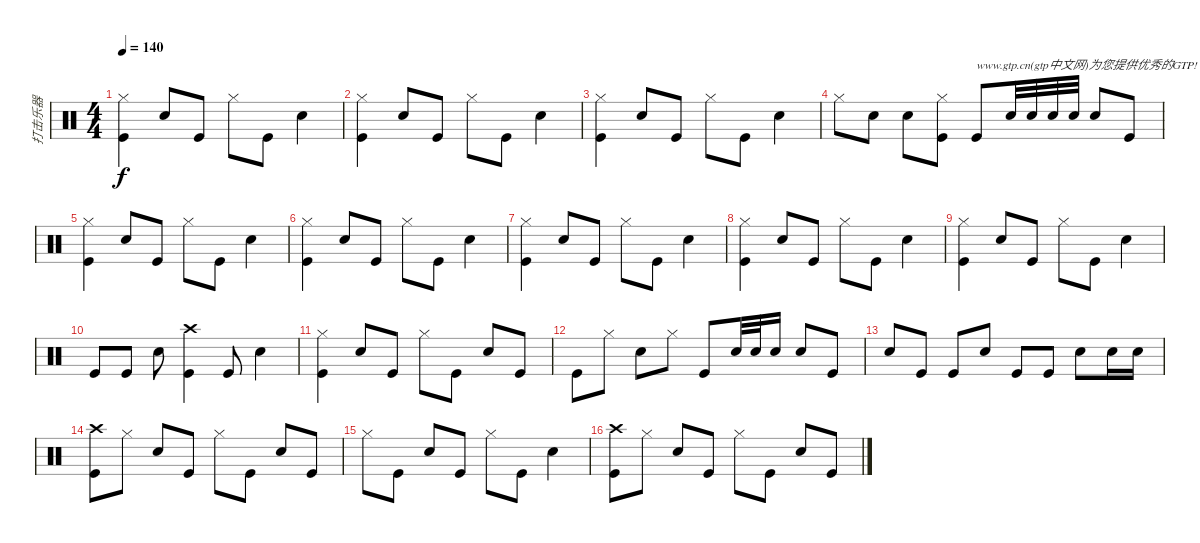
\track ("打击乐器" "打击乐器") {instrument percussion}
\staff {score}
\articulation defaults
\ts (4 4)
\tempo 140
\clef neutral
\ks c
("Hi-Hat (closed)" "Kick (hit)").4{dy f} "Snare (hit) 2".8 "Kick (hit)".8 "Hi-Hat (closed)".8 "Kick (hit)".8 "Snare (hit) 2".4 |
("Hi-Hat (closed)" "Kick (hit)").4 "Snare (hit) 2".8 "Kick (hit)".8 "Hi-Hat (closed)".8 "Kick (hit)".8 "Snare (hit) 2".4 |
("Hi-Hat (closed)" "Kick (hit)").4 "Snare (hit) 2".8 "Kick (hit)".8 "Hi-Hat (closed)".8 "Kick (hit)".8 "Snare (hit) 2".4 |
"Hi-Hat (closed)".8 "Snare (hit) 2".8 "Snare (hit) 2".8 ("Hi-Hat (closed)" "Kick (hit)").8 "Kick (hit)".8{txt "www.gtp.cn(gtp中文网)为您提供优秀的GTP!"} "Snare (hit) 2".32 "Snare (hit) 2".32 "Snare (hit) 2".32 "Snare (hit) 2".32 "Snare (hit) 2".8 "Kick (hit)".8 |
("Hi-Hat (closed)" "Kick (hit)").4 "Snare (hit) 2".8 "Kick (hit)".8 "Hi-Hat (closed)".8 "Kick (hit)".8 "Snare (hit) 2".4 |
("Hi-Hat (closed)" "Kick (hit)").4 "Snare (hit) 2".8 "Kick (hit)".8 "Hi-Hat (closed)".8 "Kick (hit)".8 "Snare (hit) 2".4 |
("Hi-Hat (closed)" "Kick (hit)").4 "Snare (hit) 2".8 "Kick (hit)".8 "Hi-Hat (closed)".8 "Kick (hit)".8 "Snare (hit) 2".4 |
("Hi-Hat (closed)" "Kick (hit)").4 "Snare (hit) 2".8 "Kick (hit)".8 "Hi-Hat (closed)".8 "Kick (hit)".8 "Snare (hit) 2".4 |
("Hi-Hat (closed)" "Kick (hit)").4 "Snare (hit) 2".8 "Kick (hit)".8 "Hi-Hat (closed)".8 "Kick (hit)".8 "Snare (hit) 2".4 |
"Kick (hit)".8 "Kick (hit)".8 "Snare (hit) 2".8 ("Crash high (hit)" "Kick (hit)").4 "Kick (hit)".8 "Snare (hit) 2".4 |
("Hi-Hat (closed)" "Kick (hit)").4 "Snare (hit) 2".8 "Kick (hit)".8 "Hi-Hat (closed)".8 "Kick (hit)".8 "Snare (hit) 2".8 "Kick (hit)".8 |
"Kick (hit)".8 "Hi-Hat (closed)".8 "Snare (hit) 2".8 "Hi-Hat (closed)".8 "Kick (hit)".8 "Snare (hit) 2".32 "Snare (hit) 2".32 "Snare (hit) 2".16 "Snare (hit) 2".8 "Kick (hit)".8 |
"Snare (hit) 2".8 "Kick (hit)".8 "Kick (hit)".8 "Snare (hit) 2".8 "Kick (hit)".8 "Kick (hit)".8 "Snare (hit) 2".8 "Snare (hit) 2".16 "Snare (hit) 2".16 |
("Crash high (hit)" "Kick (hit)").8 "Hi-Hat (closed)".8 "Snare (hit) 2".8 "Kick (hit)".8 "Hi-Hat (closed)".8 "Kick (hit)".8 "Snare (hit) 2".8 "Kick (hit)".8 |
"Hi-Hat (closed)".8 "Kick (hit)".8 "Snare (hit) 2".8 "Kick (hit)".8 "Hi-Hat (closed)".8 "Kick (hit)".8 "Snare (hit) 2".4 |
("Crash high (hit)" "Kick (hit)").8 "Hi-Hat (closed)".8 "Snare (hit) 2".8 "Kick (hit)".8 "Hi-Hat (closed)".8 "Kick (hit)".8 "Snare (hit) 2".8 "Kick (hit)".8
